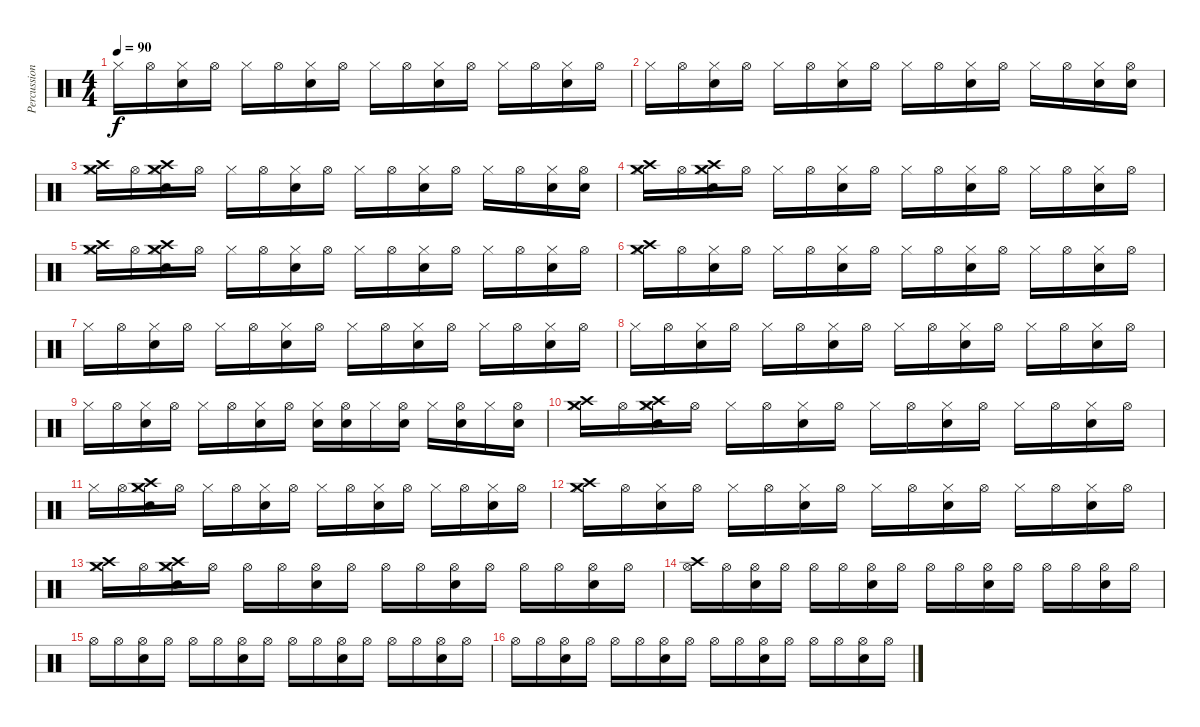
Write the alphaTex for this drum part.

\track ("Percussions" "Percussion") {instrument percussion}
\staff {score}
\articulation defaults
\ts (4 4)
\tempo 90
\clef neutral
\ks c "Hi-Hat (closed)".16{dy f} "Hi-Hat (open)".16
("Snare (hit) 2" "Hi-Hat (closed)").16 "Hi-Hat (open)".16 "Hi-Hat (closed)".16 "Hi-Hat (open)".16 ("Snare (hit) 2" "Hi-Hat (closed)").16 "Hi-Hat (open)".16 "Hi-Hat (closed)".16 "Hi-Hat (open)".16 ("Snare (hit) 2" "Hi-Hat (closed)").16 "Hi-Hat (open)".16 "Hi-Hat (closed)".16 "Hi-Hat (open)".16 ("Snare (hit) 2" "Hi-Hat (closed)").16 "Hi-Hat (open)".16 |
"Hi-Hat (closed)".16 "Hi-Hat (open)".16 ("Snare (hit) 2" "Hi-Hat (closed)").16 "Hi-Hat (open)".16 "Hi-Hat (closed)".16 "Hi-Hat (open)".16 ("Snare (hit) 2" "Hi-Hat (closed)").16 "Hi-Hat (open)".16 "Hi-Hat (closed)".16 "Hi-Hat (open)".16 ("Snare (hit) 2" "Hi-Hat (closed)").16 "Hi-Hat (open)".16 "Hi-Hat (closed)".16 "Hi-Hat (open)".16 ("Snare (hit) 2" "Hi-Hat (closed)").16 ("Snare (hit) 2" "Hi-Hat (open)").16 |
("Crash high (hit)" "Hi-Hat (closed)" "Crash medium (hit)").16 "Hi-Hat (open)".16 ("Snare (hit) 2" "Hi-Hat (closed)" "Crash high (hit)" "Crash medium (hit)").16 "Hi-Hat (open)".16 "Hi-Hat (closed)".16 "Hi-Hat (open)".16 ("Snare (hit) 2" "Hi-Hat (closed)").16 "Hi-Hat (open)".16 "Hi-Hat (closed)".16 "Hi-Hat (open)".16 ("Snare (hit) 2" "Hi-Hat (closed)").16 "Hi-Hat (open)".16 "Hi-Hat (closed)".16 "Hi-Hat (open)".16 ("Snare (hit) 2" "Hi-Hat (closed)").16 ("Snare (hit) 2" "Hi-Hat (open)").16 |
("Crash high (hit)" "Hi-Hat (closed)" "Crash medium (hit)").16 "Hi-Hat (open)".16 ("Snare (hit) 2" "Hi-Hat (closed)" "Crash high (hit)" "Crash medium (hit)").16 "Hi-Hat (open)".16 "Hi-Hat (closed)".16 "Hi-Hat (open)".16 ("Snare (hit) 2" "Hi-Hat (closed)").16 "Hi-Hat (open)".16 "Hi-Hat (closed)".16 "Hi-Hat (open)".16 ("Snare (hit) 2" "Hi-Hat (closed)").16 "Hi-Hat (open)".16 "Hi-Hat (closed)".16 "Hi-Hat (open)".16 ("Snare (hit) 2" "Hi-Hat (closed)").16 "Hi-Hat (open)".16 |
("Crash high (hit)" "Hi-Hat (closed)" "Crash medium (hit)").16 "Hi-Hat (open)".16 ("Snare (hit) 2" "Hi-Hat (closed)" "Crash high (hit)" "Crash medium (hit)").16 "Hi-Hat (open)".16 "Hi-Hat (closed)".16 "Hi-Hat (open)".16 ("Snare (hit) 2" "Hi-Hat (closed)").16 "Hi-Hat (open)".16 "Hi-Hat (closed)".16 "Hi-Hat (open)".16 ("Snare (hit) 2" "Hi-Hat (closed)").16 "Hi-Hat (open)".16 "Hi-Hat (closed)".16 "Hi-Hat (open)".16 ("Snare (hit) 2" "Hi-Hat (closed)").16 "Hi-Hat (open)".16 |
("Crash high (hit)" "Hi-Hat (closed)" "Crash medium (hit)").16 "Hi-Hat (open)".16 ("Snare (hit) 2" "Hi-Hat (closed)").16 "Hi-Hat (open)".16 "Hi-Hat (closed)".16 "Hi-Hat (open)".16 ("Snare (hit) 2" "Hi-Hat (closed)").16 "Hi-Hat (open)".16 "Hi-Hat (closed)".16 "Hi-Hat (open)".16 ("Snare (hit) 2" "Hi-Hat (closed)").16 "Hi-Hat (open)".16 "Hi-Hat (closed)".16 "Hi-Hat (open)".16 ("Snare (hit) 2" "Hi-Hat (closed)").16 "Hi-Hat (open)".16 |
"Hi-Hat (closed)".16 "Hi-Hat (open)".16 ("Snare (hit) 2" "Hi-Hat (closed)").16 "Hi-Hat (open)".16 "Hi-Hat (closed)".16 "Hi-Hat (open)".16 ("Snare (hit) 2" "Hi-Hat (closed)").16 "Hi-Hat (open)".16 "Hi-Hat (closed)".16 "Hi-Hat (open)".16 ("Snare (hit) 2" "Hi-Hat (closed)").16 "Hi-Hat (open)".16 "Hi-Hat (closed)".16 "Hi-Hat (open)".16 ("Snare (hit) 2" "Hi-Hat (closed)").16 "Hi-Hat (open)".16 |
"Hi-Hat (closed)".16 "Hi-Hat (open)".16 ("Snare (hit) 2" "Hi-Hat (closed)").16 "Hi-Hat (open)".16 "Hi-Hat (closed)".16 "Hi-Hat (open)".16 ("Snare (hit) 2" "Hi-Hat (closed)").16 "Hi-Hat (open)".16 "Hi-Hat (closed)".16 "Hi-Hat (open)".16 ("Snare (hit) 2" "Hi-Hat (closed)").16 "Hi-Hat (open)".16 "Hi-Hat (closed)".16 "Hi-Hat (open)".16 ("Snare (hit) 2" "Hi-Hat (closed)").16 "Hi-Hat (open)".16 |
"Hi-Hat (closed)".16 "Hi-Hat (open)".16 ("Snare (hit) 2" "Hi-Hat (closed)").16 "Hi-Hat (open)".16 "Hi-Hat (closed)".16 "Hi-Hat (open)".16 ("Snare (hit) 2" "Hi-Hat (closed)").16 "Hi-Hat (open)".16 ("Snare (hit) 2" "Hi-Hat (closed)").16 ("Snare (hit) 2" "Hi-Hat (open)").16 "Hi-Hat (closed)".16 ("Snare (hit) 2" "Hi-Hat (open)").16 "Hi-Hat (closed)".16 ("Snare (hit) 2" "Hi-Hat (open)").16 "Hi-Hat (closed)".16 ("Snare (hit) 2" "Hi-Hat (open)").16 |
("Crash high (hit)" "Hi-Hat (closed)" "Crash medium (hit)").16 "Hi-Hat (open)".16 ("Snare (hit) 2" "Hi-Hat (closed)" "Crash high (hit)" "Crash medium (hit)").16 "Hi-Hat (open)".16 "Hi-Hat (closed)".16 "Hi-Hat (open)".16 ("Snare (hit) 2" "Hi-Hat (closed)").16 "Hi-Hat (open)".16 "Hi-Hat (closed)".16 "Hi-Hat (open)".16 ("Snare (hit) 2" "Hi-Hat (closed)").16 "Hi-Hat (open)".16 "Hi-Hat (closed)".16 "Hi-Hat (open)".16 ("Snare (hit) 2" "Hi-Hat (closed)").16 "Hi-Hat (open)".16 |
"Hi-Hat (closed)".16 "Hi-Hat (open)".16 ("Snare (hit) 2" "Hi-Hat (closed)" "Crash high (hit)" "Crash medium (hit)").16 "Hi-Hat (open)".16 "Hi-Hat (closed)".16 "Hi-Hat (open)".16 ("Snare (hit) 2" "Hi-Hat (closed)").16 "Hi-Hat (open)".16 "Hi-Hat (closed)".16 "Hi-Hat (open)".16 ("Snare (hit) 2" "Hi-Hat (closed)").16 "Hi-Hat (open)".16 "Hi-Hat (closed)".16 "Hi-Hat (open)".16 ("Snare (hit) 2" "Hi-Hat (closed)").16 "Hi-Hat (open)".16 |
("Crash high (hit)" "Hi-Hat (closed)" "Crash medium (hit)").16 "Hi-Hat (open)".16 ("Snare (hit) 2" "Hi-Hat (closed)").16 "Hi-Hat (open)".16 "Hi-Hat (closed)".16 "Hi-Hat (open)".16 ("Snare (hit) 2" "Hi-Hat (closed)").16 "Hi-Hat (open)".16 "Hi-Hat (closed)".16 "Hi-Hat (open)".16 ("Snare (hit) 2" "Hi-Hat (closed)").16 "Hi-Hat (open)".16 "Hi-Hat (closed)".16 "Hi-Hat (open)".16 ("Snare (hit) 2" "Hi-Hat (closed)").16 "Hi-Hat (open)".16 |
("Crash high (hit)" "Hi-Hat (closed)" "Crash medium (hit)").16 "Hi-Hat (open)".16 ("Snare (hit) 2" "Hi-Hat (closed)" "Crash high (hit)" "Crash medium (hit)").16 "Hi-Hat (open)".16 "Hi-Hat (open)".16 "Hi-Hat (open)".16 ("Snare (hit) 2" "Hi-Hat (open)").16 "Hi-Hat (open)".16 "Hi-Hat (open)".16 "Hi-Hat (open)".16 ("Snare (hit) 2" "Hi-Hat (open)").16 "Hi-Hat (open)".16 "Hi-Hat (open)".16 "Hi-Hat (open)".16 ("Snare (hit) 2" "Hi-Hat (open)").16 "Hi-Hat (open)".16 |
("Crash high (hit)" "Hi-Hat (open)").16 "Hi-Hat (open)".16 ("Snare (hit) 2" "Hi-Hat (open)").16 "Hi-Hat (open)".16 "Hi-Hat (open)".16 "Hi-Hat (open)".16 ("Snare (hit) 2" "Hi-Hat (open)").16 "Hi-Hat (open)".16 "Hi-Hat (open)".16 "Hi-Hat (open)".16 ("Snare (hit) 2" "Hi-Hat (open)").16 "Hi-Hat (open)".16 "Hi-Hat (open)".16 "Hi-Hat (open)".16 ("Snare (hit) 2" "Hi-Hat (open)").16 "Hi-Hat (open)".16 |
"Hi-Hat (open)".16 "Hi-Hat (open)".16 ("Snare (hit) 2" "Hi-Hat (open)").16 "Hi-Hat (open)".16 "Hi-Hat (open)".16 "Hi-Hat (open)".16 ("Snare (hit) 2" "Hi-Hat (open)").16 "Hi-Hat (open)".16 "Hi-Hat (open)".16 "Hi-Hat (open)".16 ("Snare (hit) 2" "Hi-Hat (open)").16 "Hi-Hat (open)".16 "Hi-Hat (open)".16 "Hi-Hat (open)".16 ("Snare (hit) 2" "Hi-Hat (open)").16 "Hi-Hat (open)".16 |
"Hi-Hat (open)".16 "Hi-Hat (open)".16 ("Snare (hit) 2" "Hi-Hat (open)").16 "Hi-Hat (open)".16 "Hi-Hat (open)".16 "Hi-Hat (open)".16 ("Snare (hit) 2" "Hi-Hat (open)").16 "Hi-Hat (open)".16 "Hi-Hat (open)".16 "Hi-Hat (open)".16 ("Snare (hit) 2" "Hi-Hat (open)").16 "Hi-Hat (open)".16 "Hi-Hat (open)".16 "Hi-Hat (open)".16 ("Snare (hit) 2" "Hi-Hat (open)").16 "Hi-Hat (open)".16
